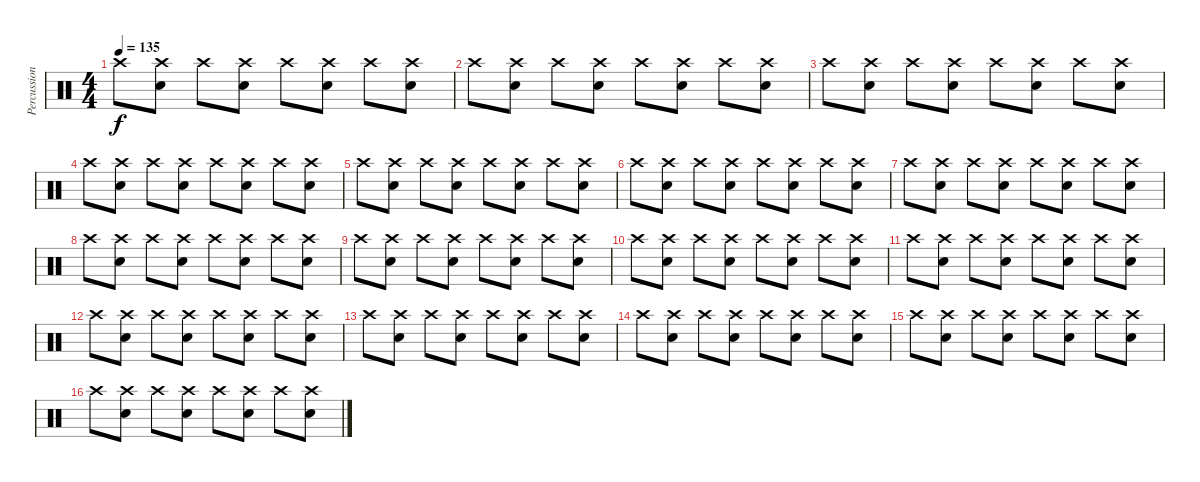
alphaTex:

\track ("Percussion" "Percussion") {instrument percussion}
\staff {score}
\articulation defaults
\ts (4 4)
\tempo 135
\clef neutral
\ks c "Crash high (hit)".8{dy f}
("Crash high (hit)" "Electric Snare (hit)").8 "Crash high (hit)".8 ("Crash high (hit)" "Electric Snare (hit)").8 "Crash high (hit)".8 ("Crash high (hit)" "Electric Snare (hit)").8 "Crash high (hit)".8 ("Crash high (hit)" "Electric Snare (hit)").8 |
"Crash high (hit)".8 ("Crash high (hit)" "Electric Snare (hit)").8 "Crash high (hit)".8 ("Crash high (hit)" "Electric Snare (hit)").8 "Crash high (hit)".8 ("Crash high (hit)" "Electric Snare (hit)").8 "Crash high (hit)".8 ("Crash high (hit)" "Electric Snare (hit)").8 |
"Crash high (hit)".8 ("Crash high (hit)" "Electric Snare (hit)").8 "Crash high (hit)".8 ("Crash high (hit)" "Electric Snare (hit)").8 "Crash high (hit)".8 ("Crash high (hit)" "Electric Snare (hit)").8 "Crash high (hit)".8 ("Crash high (hit)" "Electric Snare (hit)").8 |
"Crash high (hit)".8 ("Crash high (hit)" "Electric Snare (hit)").8 "Crash high (hit)".8 ("Crash high (hit)" "Electric Snare (hit)").8 "Crash high (hit)".8 ("Crash high (hit)" "Electric Snare (hit)").8 "Crash high (hit)".8 ("Crash high (hit)" "Electric Snare (hit)").8 |
"Crash high (hit)".8 ("Crash high (hit)" "Electric Snare (hit)").8 "Crash high (hit)".8 ("Crash high (hit)" "Electric Snare (hit)").8 "Crash high (hit)".8 ("Crash high (hit)" "Electric Snare (hit)").8 "Crash high (hit)".8 ("Crash high (hit)" "Electric Snare (hit)").8 |
"Crash high (hit)".8 ("Crash high (hit)" "Electric Snare (hit)").8 "Crash high (hit)".8 ("Crash high (hit)" "Electric Snare (hit)").8 "Crash high (hit)".8 ("Crash high (hit)" "Electric Snare (hit)").8 "Crash high (hit)".8 ("Crash high (hit)" "Electric Snare (hit)").8 |
"Crash high (hit)".8 ("Crash high (hit)" "Electric Snare (hit)").8 "Crash high (hit)".8 ("Crash high (hit)" "Electric Snare (hit)").8 "Crash high (hit)".8 ("Crash high (hit)" "Electric Snare (hit)").8 "Crash high (hit)".8 ("Crash high (hit)" "Electric Snare (hit)").8 |
"Crash high (hit)".8 ("Crash high (hit)" "Electric Snare (hit)").8 "Crash high (hit)".8 ("Crash high (hit)" "Electric Snare (hit)").8 "Crash high (hit)".8 ("Crash high (hit)" "Electric Snare (hit)").8 "Crash high (hit)".8 ("Crash high (hit)" "Electric Snare (hit)").8 |
"Crash high (hit)".8 ("Crash high (hit)" "Electric Snare (hit)").8 "Crash high (hit)".8 ("Crash high (hit)" "Electric Snare (hit)").8 "Crash high (hit)".8 ("Crash high (hit)" "Electric Snare (hit)").8 "Crash high (hit)".8 ("Crash high (hit)" "Electric Snare (hit)").8 |
"Crash high (hit)".8 ("Crash high (hit)" "Electric Snare (hit)").8 "Crash high (hit)".8 ("Crash high (hit)" "Electric Snare (hit)").8 "Crash high (hit)".8 ("Crash high (hit)" "Electric Snare (hit)").8 "Crash high (hit)".8 ("Crash high (hit)" "Electric Snare (hit)").8 |
"Crash high (hit)".8 ("Crash high (hit)" "Electric Snare (hit)").8 "Crash high (hit)".8 ("Crash high (hit)" "Electric Snare (hit)").8 "Crash high (hit)".8 ("Crash high (hit)" "Electric Snare (hit)").8 "Crash high (hit)".8 ("Crash high (hit)" "Electric Snare (hit)").8 |
"Crash high (hit)".8 ("Crash high (hit)" "Electric Snare (hit)").8 "Crash high (hit)".8 ("Crash high (hit)" "Electric Snare (hit)").8 "Crash high (hit)".8 ("Crash high (hit)" "Electric Snare (hit)").8 "Crash high (hit)".8 ("Crash high (hit)" "Electric Snare (hit)").8 |
"Crash high (hit)".8 ("Crash high (hit)" "Electric Snare (hit)").8 "Crash high (hit)".8 ("Crash high (hit)" "Electric Snare (hit)").8 "Crash high (hit)".8 ("Crash high (hit)" "Electric Snare (hit)").8 "Crash high (hit)".8 ("Crash high (hit)" "Electric Snare (hit)").8 |
"Crash high (hit)".8 ("Crash high (hit)" "Electric Snare (hit)").8 "Crash high (hit)".8 ("Crash high (hit)" "Electric Snare (hit)").8 "Crash high (hit)".8 ("Crash high (hit)" "Electric Snare (hit)").8 "Crash high (hit)".8 ("Crash high (hit)" "Electric Snare (hit)").8 |
"Crash high (hit)".8 ("Crash high (hit)" "Electric Snare (hit)").8 "Crash high (hit)".8 ("Crash high (hit)" "Electric Snare (hit)").8 "Crash high (hit)".8 ("Crash high (hit)" "Electric Snare (hit)").8 "Crash high (hit)".8 ("Crash high (hit)" "Electric Snare (hit)").8 |
"Crash high (hit)".8 ("Crash high (hit)" "Electric Snare (hit)").8 "Crash high (hit)".8 ("Crash high (hit)" "Electric Snare (hit)").8 "Crash high (hit)".8 ("Crash high (hit)" "Electric Snare (hit)").8 "Crash high (hit)".8 ("Crash high (hit)" "Electric Snare (hit)").8
